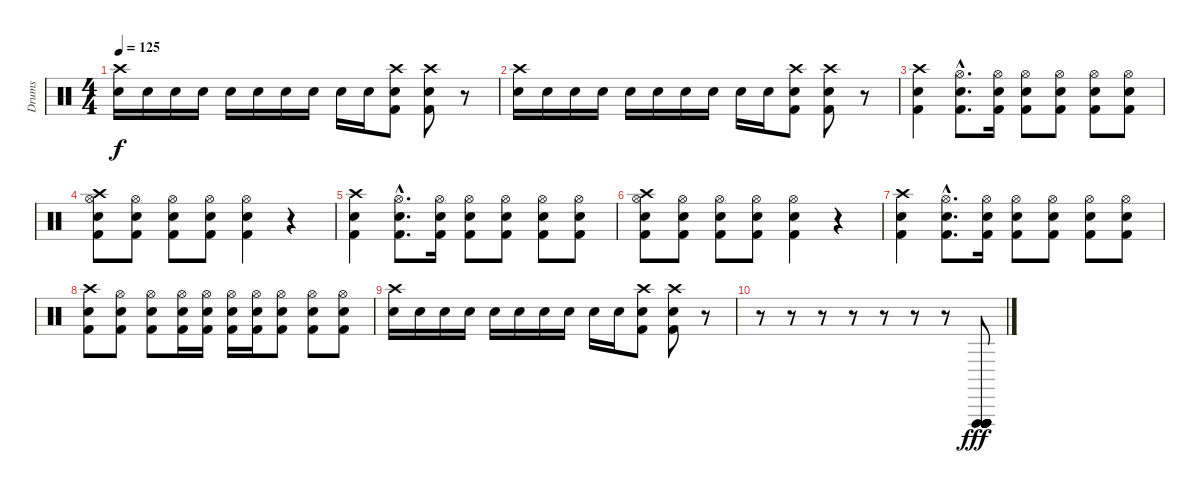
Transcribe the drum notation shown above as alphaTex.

\track ("Drums" "Drums") {instrument percussion}
\staff {score}
\articulation defaults
\ts (4 4)
\tempo 125
\clef neutral
\ks c
("Crash high (hit)" "Electric Snare (hit)").16{dy f} "Electric Snare (hit)".16 "Electric Snare (hit)".16 "Electric Snare (hit)".16 "Electric Snare (hit)".16 "Electric Snare (hit)".16 "Electric Snare (hit)".16 "Electric Snare (hit)".16 "Electric Snare (hit)".16 "Electric Snare (hit)".16 ("Crash high (hit)" "Electric Snare (hit)" "Kick (hit) 2").8 ("Crash high (hit)" "Electric Snare (hit)" "Kick (hit) 2").8 r.8 |
("Crash high (hit)" "Electric Snare (hit)").16 "Electric Snare (hit)".16 "Electric Snare (hit)".16 "Electric Snare (hit)".16 "Electric Snare (hit)".16 "Electric Snare (hit)".16 "Electric Snare (hit)".16 "Electric Snare (hit)".16 "Electric Snare (hit)".16 "Electric Snare (hit)".16 ("Crash high (hit)" "Electric Snare (hit)" "Kick (hit) 2").8 ("Crash high (hit)" "Electric Snare (hit)" "Kick (hit) 2").8 r.8 |
("Crash high (hit)" "Electric Snare (hit)" "Kick (hit) 2").4 ("Hi-Hat (open)"{hac} "Electric Snare (hit)"{hac} "Kick (hit) 2"{hac}).8{d} ("Hi-Hat (open)" "Electric Snare (hit)" "Kick (hit) 2").16 ("Hi-Hat (open)" "Electric Snare (hit)" "Kick (hit) 2").8 ("Hi-Hat (open)" "Electric Snare (hit)" "Kick (hit) 2").8 ("Hi-Hat (open)" "Electric Snare (hit)" "Kick (hit) 2").8 ("Hi-Hat (open)" "Electric Snare (hit)" "Kick (hit) 2").8 |
("Crash high (hit)" "Hi-Hat (open)" "Electric Snare (hit)" "Kick (hit) 2").8 ("Hi-Hat (open)" "Electric Snare (hit)" "Kick (hit) 2").8 ("Hi-Hat (open)" "Electric Snare (hit)" "Kick (hit) 2").8 ("Hi-Hat (open)" "Electric Snare (hit)" "Kick (hit) 2").8 ("Hi-Hat (open)" "Electric Snare (hit)" "Kick (hit) 2").4 r.4 |
("Crash high (hit)" "Electric Snare (hit)" "Kick (hit) 2").4 ("Hi-Hat (open)"{hac} "Electric Snare (hit)"{hac} "Kick (hit) 2"{hac}).8{d} ("Hi-Hat (open)" "Electric Snare (hit)" "Kick (hit) 2").16 ("Hi-Hat (open)" "Electric Snare (hit)" "Kick (hit) 2").8 ("Hi-Hat (open)" "Electric Snare (hit)" "Kick (hit) 2").8 ("Hi-Hat (open)" "Electric Snare (hit)" "Kick (hit) 2").8 ("Hi-Hat (open)" "Electric Snare (hit)" "Kick (hit) 2").8 |
("Crash high (hit)" "Hi-Hat (open)" "Electric Snare (hit)" "Kick (hit) 2").8 ("Hi-Hat (open)" "Electric Snare (hit)" "Kick (hit) 2").8 ("Hi-Hat (open)" "Electric Snare (hit)" "Kick (hit) 2").8 ("Hi-Hat (open)" "Electric Snare (hit)" "Kick (hit) 2").8 ("Hi-Hat (open)" "Electric Snare (hit)" "Kick (hit) 2").4 r.4 |
("Crash high (hit)" "Electric Snare (hit)" "Kick (hit) 2").4 ("Hi-Hat (open)"{hac} "Electric Snare (hit)"{hac} "Kick (hit) 2"{hac}).8{d} ("Hi-Hat (open)" "Electric Snare (hit)" "Kick (hit) 2").16 ("Hi-Hat (open)" "Electric Snare (hit)" "Kick (hit) 2").8 ("Hi-Hat (open)" "Electric Snare (hit)" "Kick (hit) 2").8 ("Hi-Hat (open)" "Electric Snare (hit)" "Kick (hit) 2").8 ("Hi-Hat (open)" "Electric Snare (hit)" "Kick (hit) 2").8 |
("Crash high (hit)" "Electric Snare (hit)" "Kick (hit) 2").8 ("Hi-Hat (open)" "Electric Snare (hit)" "Kick (hit) 2").8 ("Hi-Hat (open)" "Electric Snare (hit)" "Kick (hit) 2").8 ("Hi-Hat (open)" "Electric Snare (hit)" "Kick (hit) 2").16 ("Hi-Hat (open)" "Electric Snare (hit)" "Kick (hit) 2").16 ("Hi-Hat (open)" "Electric Snare (hit)" "Kick (hit) 2").16 ("Hi-Hat (open)" "Electric Snare (hit)" "Kick (hit) 2").16 ("Hi-Hat (open)" "Electric Snare (hit)" "Kick (hit) 2").8 ("Hi-Hat (open)" "Electric Snare (hit)" "Kick (hit) 2").8 ("Hi-Hat (open)" "Electric Snare (hit)" "Kick (hit) 2").8 |
("Crash high (hit)" "Electric Snare (hit)").16 "Electric Snare (hit)".16 "Electric Snare (hit)".16 "Electric Snare (hit)".16 "Electric Snare (hit)".16 "Electric Snare (hit)".16 "Electric Snare (hit)".16 "Electric Snare (hit)".16 "Electric Snare (hit)".16 "Electric Snare (hit)".16 ("Crash high (hit)" "Electric Snare (hit)" "Kick (hit) 2").8 ("Crash high (hit)" "Electric Snare (hit)" "Kick (hit) 2").8 r.8 |
r.8 r.8 r.8 r.8 r.8 r.8 r.8 ("Vibraslap (hit)" "Vibraslap (hit)" "Vibraslap (hit)" "Vibraslap (hit)" "Vibraslap (hit)" "Vibraslap (hit)").8{dy fff}
